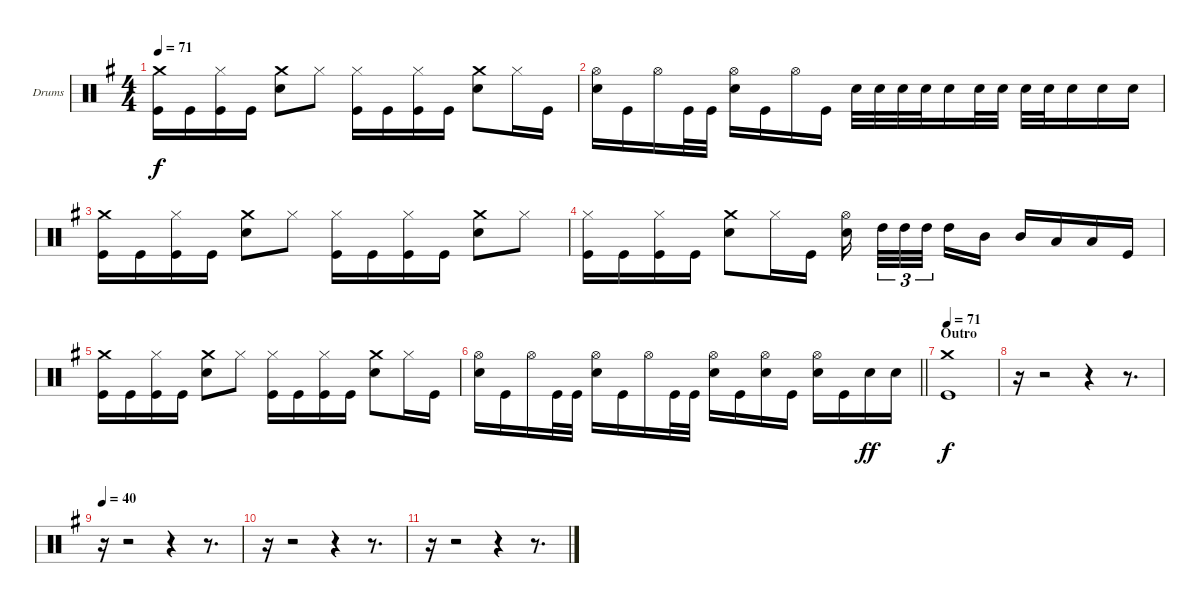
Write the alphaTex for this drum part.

\bracketExtendMode groupsimilarinstruments
\firstSystemTrackNameOrientation horizontal
\otherSystemsTrackNameOrientation horizontal
\track ("Барабаны" "Drums") {instrument percussion}
\staff {score}
\articulation defaults
\ts (4 4)
\tempo 71
\clef neutral
\ks eminor
("Kick (hit)" "Crash medium (hit)").16{dy f} "Kick (hit)".16 ("Kick (hit)" "Hi-Hat (closed)").16 "Kick (hit)".16 ("Snare (hit) 2" "Crash medium (hit)").8 "Hi-Hat (closed)".8 ("Kick (hit)" "Hi-Hat (closed)").16 "Kick (hit)".16 ("Kick (hit)" "Hi-Hat (closed)").16 "Kick (hit)".16 ("Snare (hit) 2" "Crash medium (hit)").8 "Hi-Hat (closed)".16 "Kick (hit)".16 |
("Snare (hit) 2" "Hi-Hat (open)").16 "Kick (hit)".16 "Hi-Hat (open)".16 "Kick (hit)".32 "Kick (hit)".32 ("Snare (hit) 2" "Hi-Hat (open)").16 "Kick (hit)".16 "Hi-Hat (open)".16 "Kick (hit)".16 "Snare (hit) 2".32 "Snare (hit) 2".32 "Snare (hit) 2".32 "Snare (hit) 2".32 "Snare (hit) 2".16 "Snare (hit) 2".32 "Snare (hit) 2".32 "Snare (hit) 2".32 "Snare (hit) 2".32 "Snare (hit) 2".16 "Snare (hit) 2".16 "Snare (hit) 2".16 |
("Kick (hit)" "Crash medium (hit)").16 "Kick (hit)".16 ("Kick (hit)" "Hi-Hat (closed)").16 "Kick (hit)".16 ("Snare (hit) 2" "Crash medium (hit)").8 "Hi-Hat (closed)".8 ("Kick (hit)" "Hi-Hat (closed)").16 "Kick (hit)".16 ("Kick (hit)" "Hi-Hat (closed)").16 "Kick (hit)".16 ("Snare (hit) 2" "Crash medium (hit)").8 "Hi-Hat (closed)".8 |
("Kick (hit)" "Hi-Hat (closed)").16 "Kick (hit)".16 ("Hi-Hat (closed)" "Kick (hit)").16 "Kick (hit)".16 ("Crash medium (hit)" "Snare (hit) 2").8 "Hi-Hat (closed)".16 "Kick (hit)".16 ("Snare (hit) 2" "Hi-Hat (open)").16 "High Tom (hit)".32{tu (3 2)} "High Tom (hit)".32{tu (3 2)} "High Tom (hit)".32{tu (3 2)} "High Tom (hit)".16 "Mid Tom (hit)".16 "Mid Tom (hit)".16 "Low Tom (hit)".16 "Low Tom (hit)".16 "Kick (hit)".16 |
("Kick (hit)" "Crash medium (hit)").16 "Kick (hit)".16 ("Kick (hit)" "Hi-Hat (closed)").16 "Kick (hit)".16 ("Snare (hit) 2" "Crash medium (hit)").8 "Hi-Hat (closed)".8 ("Kick (hit)" "Hi-Hat (closed)").16 "Kick (hit)".16 ("Kick (hit)" "Hi-Hat (closed)").16 "Kick (hit)".16 ("Snare (hit) 2" "Crash medium (hit)").8 "Hi-Hat (closed)".16 "Kick (hit)".16 |
\barLineRight lightlight
("Snare (hit) 2" "Hi-Hat (open)").16 "Kick (hit)".16 "Hi-Hat (open)".16 "Kick (hit)".32 "Kick (hit)".32 ("Snare (hit) 2" "Hi-Hat (open)").16 "Kick (hit)".16 "Hi-Hat (open)".16 "Kick (hit)".32 "Kick (hit)".32 ("Snare (hit) 2" "Hi-Hat (open)").16 "Kick (hit)".16 ("Snare (hit) 2" "Hi-Hat (open)").16 "Kick (hit)".16 ("Snare (hit) 2" "Hi-Hat (open)").16 "Kick (hit)".16 "Snare (hit) 2".16{dy ff} "Snare (hit) 2".16 |
\section ("" "Outro")
\tempo 71
("Kick (hit)" "Crash medium (hit)").1{dy f} |
r.16 r.2 r.4 r.8{d} |
\tempo 40
r.16 r.2 r.4 r.8{d} |
r.16 r.2 r.4 r.8{d} |
r.16 r.2 r.4 r.8{d}
